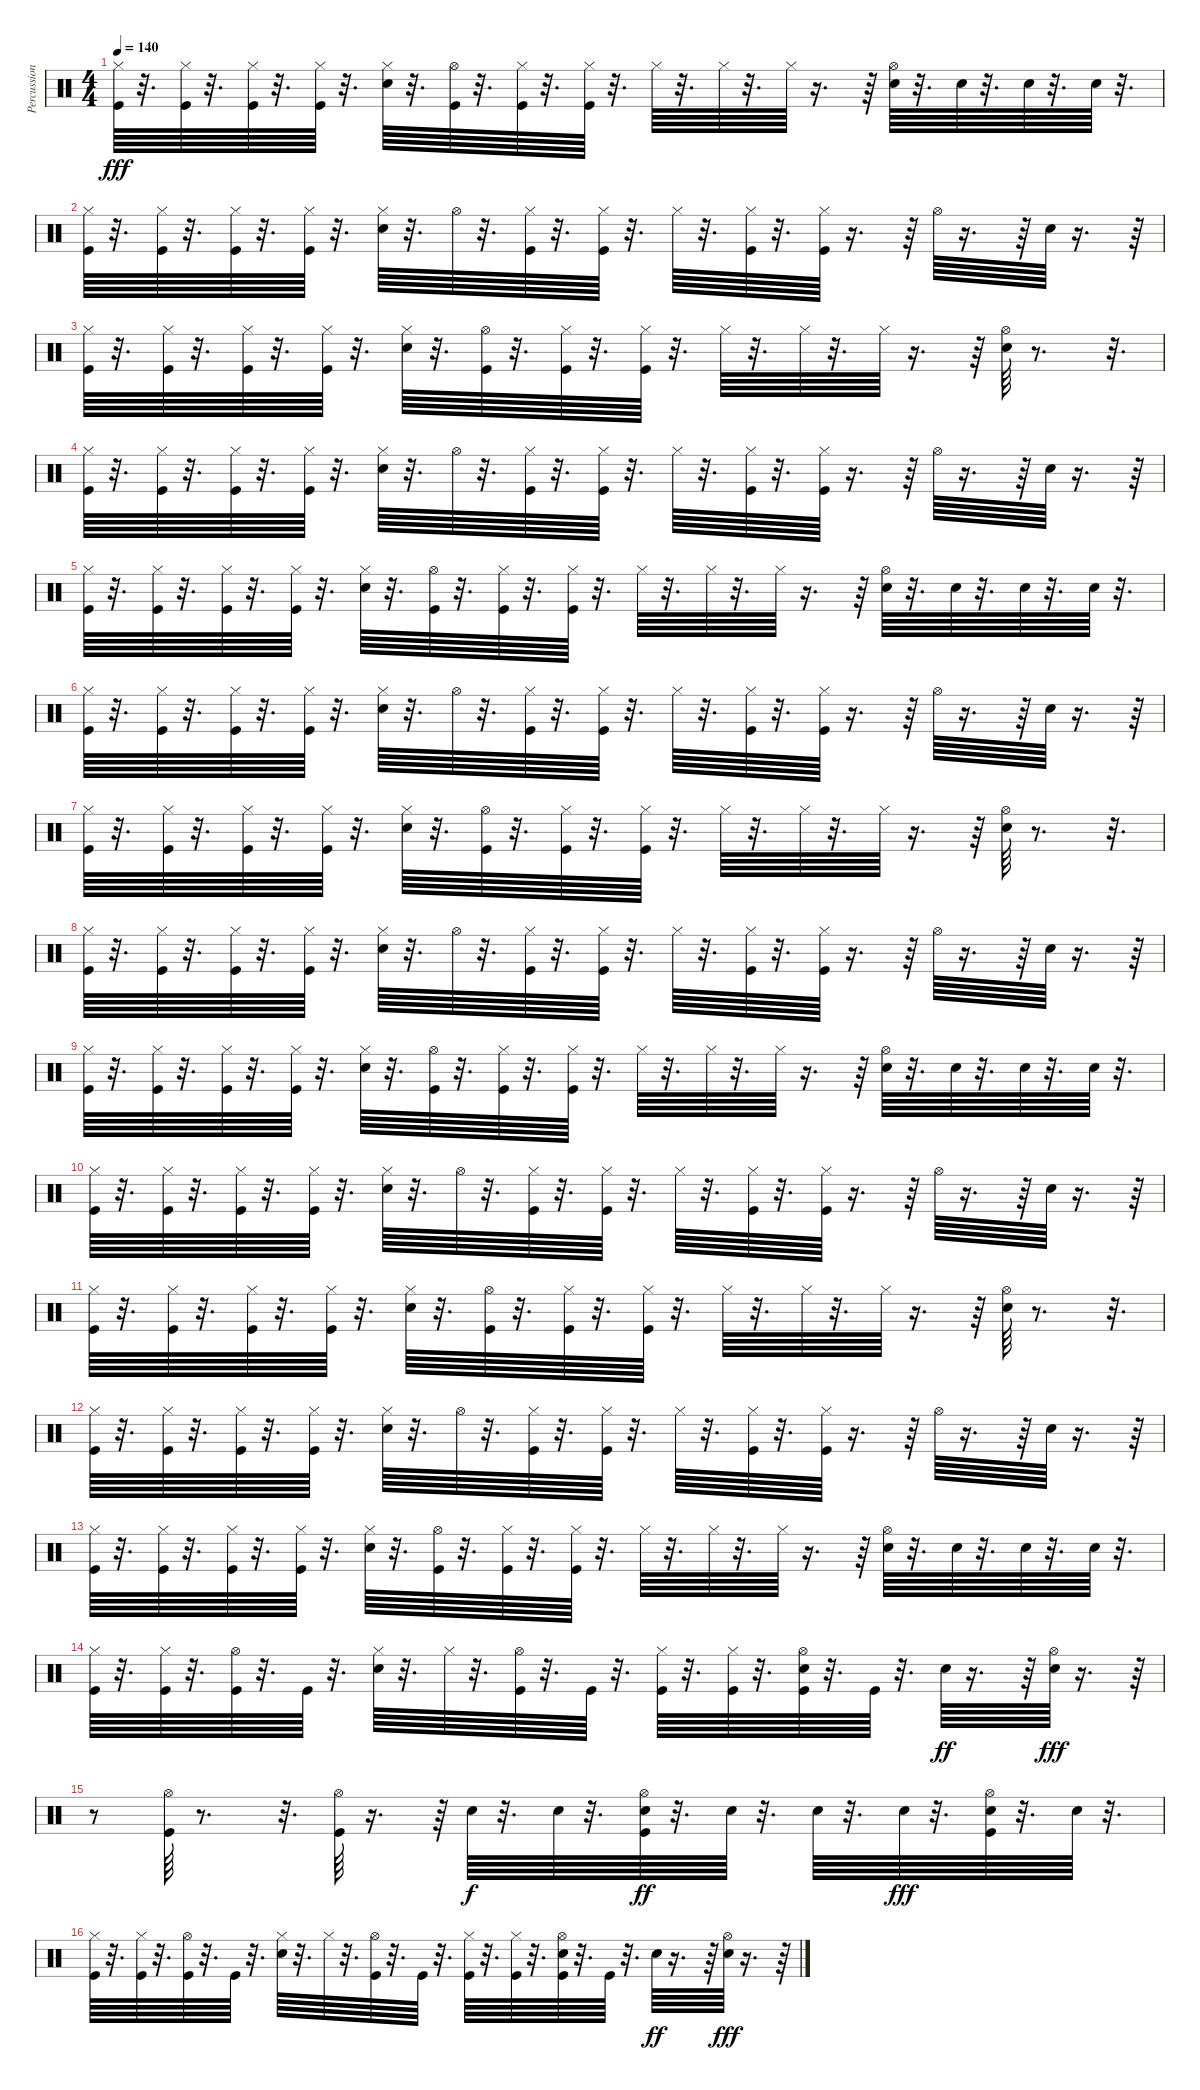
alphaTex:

\track ("Percussion [Room Kit]" "Percussion") {instrument percussion}
\staff {score}
\articulation defaults
\ts (4 4)
\tempo 140
\clef neutral
\ks c
("Kick (hit)" "Hi-Hat (closed)").64{dy fff} r.32{d} ("Kick (hit)" "Hi-Hat (closed)").64 r.32{d} ("Kick (hit)" "Hi-Hat (closed)").64 r.32{d} ("Kick (hit)" "Hi-Hat (closed)").64 r.32{d} ("Electric Snare (hit)" "Hi-Hat (closed)").64 r.32{d} ("Kick (hit)" "Hi-Hat (open)").64 r.32{d} ("Kick (hit)" "Hi-Hat (closed)").64 r.32{d} ("Kick (hit)" "Hi-Hat (closed)").64 r.32{d} "Hi-Hat (closed)".64 r.32{d} "Hi-Hat (closed)".64 r.32{d} "Hi-Hat (closed)".64 r.16{d} r.64 ("Electric Snare (hit)" "Hi-Hat (open)").64 r.32{d} "Electric Snare (hit)".64 r.32{d} "Electric Snare (hit)".64 r.32{d} "Electric Snare (hit)".64 r.32{d} |
("Kick (hit)" "Hi-Hat (closed)").64 r.32{d} ("Kick (hit)" "Hi-Hat (closed)").64 r.32{d} ("Kick (hit)" "Hi-Hat (closed)").64 r.32{d} ("Kick (hit)" "Hi-Hat (closed)").64 r.32{d} ("Electric Snare (hit)" "Hi-Hat (closed)").64 r.32{d} "Hi-Hat (open)".64 r.32{d} ("Kick (hit)" "Hi-Hat (closed)").64 r.32{d} ("Kick (hit)" "Hi-Hat (closed)").64 r.32{d} "Hi-Hat (closed)".64 r.32{d} ("Kick (hit)" "Hi-Hat (closed)").64 r.32{d} ("Kick (hit)" "Hi-Hat (closed)").64 r.16{d} r.64 "Hi-Hat (open)".64 r.16{d} r.64 "Electric Snare (hit)".64 r.16{d} r.64 |
("Kick (hit)" "Hi-Hat (closed)").64 r.32{d} ("Kick (hit)" "Hi-Hat (closed)").64 r.32{d} ("Kick (hit)" "Hi-Hat (closed)").64 r.32{d} ("Kick (hit)" "Hi-Hat (closed)").64 r.32{d} ("Electric Snare (hit)" "Hi-Hat (closed)").64 r.32{d} ("Kick (hit)" "Hi-Hat (open)").64 r.32{d} ("Kick (hit)" "Hi-Hat (closed)").64 r.32{d} ("Kick (hit)" "Hi-Hat (closed)").64 r.32{d} "Hi-Hat (closed)".64 r.32{d} "Hi-Hat (closed)".64 r.32{d} "Hi-Hat (closed)".64 r.16{d} r.64 ("Electric Snare (hit)" "Hi-Hat (open)").64 r.8{d} r.32{d} |
("Kick (hit)" "Hi-Hat (closed)").64 r.32{d} ("Kick (hit)" "Hi-Hat (closed)").64 r.32{d} ("Kick (hit)" "Hi-Hat (closed)").64 r.32{d} ("Kick (hit)" "Hi-Hat (closed)").64 r.32{d} ("Electric Snare (hit)" "Hi-Hat (closed)").64 r.32{d} "Hi-Hat (open)".64 r.32{d} ("Kick (hit)" "Hi-Hat (closed)").64 r.32{d} ("Kick (hit)" "Hi-Hat (closed)").64 r.32{d} "Hi-Hat (closed)".64 r.32{d} ("Kick (hit)" "Hi-Hat (closed)").64 r.32{d} ("Kick (hit)" "Hi-Hat (closed)").64 r.16{d} r.64 "Hi-Hat (open)".64 r.16{d} r.64 "Electric Snare (hit)".64 r.16{d} r.64 |
("Kick (hit)" "Hi-Hat (closed)").64 r.32{d} ("Kick (hit)" "Hi-Hat (closed)").64 r.32{d} ("Kick (hit)" "Hi-Hat (closed)").64 r.32{d} ("Kick (hit)" "Hi-Hat (closed)").64 r.32{d} ("Electric Snare (hit)" "Hi-Hat (closed)").64 r.32{d} ("Kick (hit)" "Hi-Hat (open)").64 r.32{d} ("Kick (hit)" "Hi-Hat (closed)").64 r.32{d} ("Kick (hit)" "Hi-Hat (closed)").64 r.32{d} "Hi-Hat (closed)".64 r.32{d} "Hi-Hat (closed)".64 r.32{d} "Hi-Hat (closed)".64 r.16{d} r.64 ("Electric Snare (hit)" "Hi-Hat (open)").64 r.32{d} "Electric Snare (hit)".64 r.32{d} "Electric Snare (hit)".64 r.32{d} "Electric Snare (hit)".64 r.32{d} |
("Kick (hit)" "Hi-Hat (closed)").64 r.32{d} ("Kick (hit)" "Hi-Hat (closed)").64 r.32{d} ("Kick (hit)" "Hi-Hat (closed)").64 r.32{d} ("Kick (hit)" "Hi-Hat (closed)").64 r.32{d} ("Electric Snare (hit)" "Hi-Hat (closed)").64 r.32{d} "Hi-Hat (open)".64 r.32{d} ("Kick (hit)" "Hi-Hat (closed)").64 r.32{d} ("Kick (hit)" "Hi-Hat (closed)").64 r.32{d} "Hi-Hat (closed)".64 r.32{d} ("Kick (hit)" "Hi-Hat (closed)").64 r.32{d} ("Kick (hit)" "Hi-Hat (closed)").64 r.16{d} r.64 "Hi-Hat (open)".64 r.16{d} r.64 "Electric Snare (hit)".64 r.16{d} r.64 |
("Kick (hit)" "Hi-Hat (closed)").64 r.32{d} ("Kick (hit)" "Hi-Hat (closed)").64 r.32{d} ("Kick (hit)" "Hi-Hat (closed)").64 r.32{d} ("Kick (hit)" "Hi-Hat (closed)").64 r.32{d} ("Electric Snare (hit)" "Hi-Hat (closed)").64 r.32{d} ("Kick (hit)" "Hi-Hat (open)").64 r.32{d} ("Kick (hit)" "Hi-Hat (closed)").64 r.32{d} ("Kick (hit)" "Hi-Hat (closed)").64 r.32{d} "Hi-Hat (closed)".64 r.32{d} "Hi-Hat (closed)".64 r.32{d} "Hi-Hat (closed)".64 r.16{d} r.64 ("Electric Snare (hit)" "Hi-Hat (open)").64 r.8{d} r.32{d} |
("Kick (hit)" "Hi-Hat (closed)").64 r.32{d} ("Kick (hit)" "Hi-Hat (closed)").64 r.32{d} ("Kick (hit)" "Hi-Hat (closed)").64 r.32{d} ("Kick (hit)" "Hi-Hat (closed)").64 r.32{d} ("Electric Snare (hit)" "Hi-Hat (closed)").64 r.32{d} "Hi-Hat (open)".64 r.32{d} ("Kick (hit)" "Hi-Hat (closed)").64 r.32{d} ("Kick (hit)" "Hi-Hat (closed)").64 r.32{d} "Hi-Hat (closed)".64 r.32{d} ("Kick (hit)" "Hi-Hat (closed)").64 r.32{d} ("Kick (hit)" "Hi-Hat (closed)").64 r.16{d} r.64 "Hi-Hat (open)".64 r.16{d} r.64 "Electric Snare (hit)".64 r.16{d} r.64 |
("Kick (hit)" "Hi-Hat (closed)").64 r.32{d} ("Kick (hit)" "Hi-Hat (closed)").64 r.32{d} ("Kick (hit)" "Hi-Hat (closed)").64 r.32{d} ("Kick (hit)" "Hi-Hat (closed)").64 r.32{d} ("Electric Snare (hit)" "Hi-Hat (closed)").64 r.32{d} ("Kick (hit)" "Hi-Hat (open)").64 r.32{d} ("Kick (hit)" "Hi-Hat (closed)").64 r.32{d} ("Kick (hit)" "Hi-Hat (closed)").64 r.32{d} "Hi-Hat (closed)".64 r.32{d} "Hi-Hat (closed)".64 r.32{d} "Hi-Hat (closed)".64 r.16{d} r.64 ("Electric Snare (hit)" "Hi-Hat (open)").64 r.32{d} "Electric Snare (hit)".64 r.32{d} "Electric Snare (hit)".64 r.32{d} "Electric Snare (hit)".64 r.32{d} |
("Kick (hit)" "Hi-Hat (closed)").64 r.32{d} ("Kick (hit)" "Hi-Hat (closed)").64 r.32{d} ("Kick (hit)" "Hi-Hat (closed)").64 r.32{d} ("Kick (hit)" "Hi-Hat (closed)").64 r.32{d} ("Electric Snare (hit)" "Hi-Hat (closed)").64 r.32{d} "Hi-Hat (open)".64 r.32{d} ("Kick (hit)" "Hi-Hat (closed)").64 r.32{d} ("Kick (hit)" "Hi-Hat (closed)").64 r.32{d} "Hi-Hat (closed)".64 r.32{d} ("Kick (hit)" "Hi-Hat (closed)").64 r.32{d} ("Kick (hit)" "Hi-Hat (closed)").64 r.16{d} r.64 "Hi-Hat (open)".64 r.16{d} r.64 "Electric Snare (hit)".64 r.16{d} r.64 |
("Kick (hit)" "Hi-Hat (closed)").64 r.32{d} ("Kick (hit)" "Hi-Hat (closed)").64 r.32{d} ("Kick (hit)" "Hi-Hat (closed)").64 r.32{d} ("Kick (hit)" "Hi-Hat (closed)").64 r.32{d} ("Electric Snare (hit)" "Hi-Hat (closed)").64 r.32{d} ("Kick (hit)" "Hi-Hat (open)").64 r.32{d} ("Kick (hit)" "Hi-Hat (closed)").64 r.32{d} ("Kick (hit)" "Hi-Hat (closed)").64 r.32{d} "Hi-Hat (closed)".64 r.32{d} "Hi-Hat (closed)".64 r.32{d} "Hi-Hat (closed)".64 r.16{d} r.64 ("Electric Snare (hit)" "Hi-Hat (open)").64 r.8{d} r.32{d} |
("Kick (hit)" "Hi-Hat (closed)").64 r.32{d} ("Kick (hit)" "Hi-Hat (closed)").64 r.32{d} ("Kick (hit)" "Hi-Hat (closed)").64 r.32{d} ("Kick (hit)" "Hi-Hat (closed)").64 r.32{d} ("Electric Snare (hit)" "Hi-Hat (closed)").64 r.32{d} "Hi-Hat (open)".64 r.32{d} ("Kick (hit)" "Hi-Hat (closed)").64 r.32{d} ("Kick (hit)" "Hi-Hat (closed)").64 r.32{d} "Hi-Hat (closed)".64 r.32{d} ("Kick (hit)" "Hi-Hat (closed)").64 r.32{d} ("Kick (hit)" "Hi-Hat (closed)").64 r.16{d} r.64 "Hi-Hat (open)".64 r.16{d} r.64 "Electric Snare (hit)".64 r.16{d} r.64 |
("Kick (hit)" "Hi-Hat (closed)").64 r.32{d} ("Kick (hit)" "Hi-Hat (closed)").64 r.32{d} ("Kick (hit)" "Hi-Hat (closed)").64 r.32{d} ("Kick (hit)" "Hi-Hat (closed)").64 r.32{d} ("Electric Snare (hit)" "Hi-Hat (closed)").64 r.32{d} ("Kick (hit)" "Hi-Hat (open)").64 r.32{d} ("Kick (hit)" "Hi-Hat (closed)").64 r.32{d} ("Kick (hit)" "Hi-Hat (closed)").64 r.32{d} "Hi-Hat (closed)".64 r.32{d} "Hi-Hat (closed)".64 r.32{d} "Hi-Hat (closed)".64 r.16{d} r.64 ("Electric Snare (hit)" "Hi-Hat (open)").64 r.32{d} "Electric Snare (hit)".64 r.32{d} "Electric Snare (hit)".64 r.32{d} "Electric Snare (hit)".64 r.32{d} |
("Hi-Hat (closed)" "Kick (hit)").64 r.32{d} ("Hi-Hat (closed)" "Kick (hit)").64 r.32{d} ("Hi-Hat (open)" "Kick (hit)").64 r.32{d} "Kick (hit)".64 r.32{d} ("Hi-Hat (closed)" "Electric Snare (hit)").64 r.32{d} "Hi-Hat (closed)".64 r.32{d} ("Hi-Hat (open)" "Kick (hit)").64 r.32{d} "Kick (hit)".64 r.32{d} ("Hi-Hat (closed)" "Kick (hit)").64 r.32{d} ("Hi-Hat (closed)" "Kick (hit)").64 r.32{d} ("Hi-Hat (open)" "Kick (hit)" "Electric Snare (hit)").64 r.32{d} "Kick (hit)".64 r.32{d} "Electric Snare (hit)".64{dy ff} r.16{d} r.64 ("Hi-Hat (open)" "Electric Snare (hit)").64{dy fff} r.16{d} r.64 |
r.8 ("Kick (hit)" "Hi-Hat (open)").64 r.8{d} r.32{d} ("Kick (hit)" "Hi-Hat (open)").64 r.16{d} r.64 "Electric Snare (hit)".64{dy f} r.32{d} "Electric Snare (hit)".64 r.32{d} ("Kick (hit)" "Hi-Hat (open)" "Electric Snare (hit)").64{dy ff} r.32{d} "Electric Snare (hit)".64 r.32{d} "Electric Snare (hit)".64 r.32{d} "Electric Snare (hit)".64{dy fff} r.32{d} ("Kick (hit)" "Hi-Hat (open)" "Electric Snare (hit)").64 r.32{d} "Electric Snare (hit)".64 r.32{d} |
("Hi-Hat (closed)" "Kick (hit)").64 r.32{d} ("Hi-Hat (closed)" "Kick (hit)").64 r.32{d} ("Hi-Hat (open)" "Kick (hit)").64 r.32{d} "Kick (hit)".64 r.32{d} ("Hi-Hat (closed)" "Electric Snare (hit)").64 r.32{d} "Hi-Hat (closed)".64 r.32{d} ("Hi-Hat (open)" "Kick (hit)").64 r.32{d} "Kick (hit)".64 r.32{d} ("Hi-Hat (closed)" "Kick (hit)").64 r.32{d} ("Hi-Hat (closed)" "Kick (hit)").64 r.32{d} ("Hi-Hat (open)" "Kick (hit)" "Electric Snare (hit)").64 r.32{d} "Kick (hit)".64 r.32{d} "Electric Snare (hit)".64{dy ff} r.16{d} r.64 ("Hi-Hat (open)" "Electric Snare (hit)").64{dy fff} r.16{d} r.64
